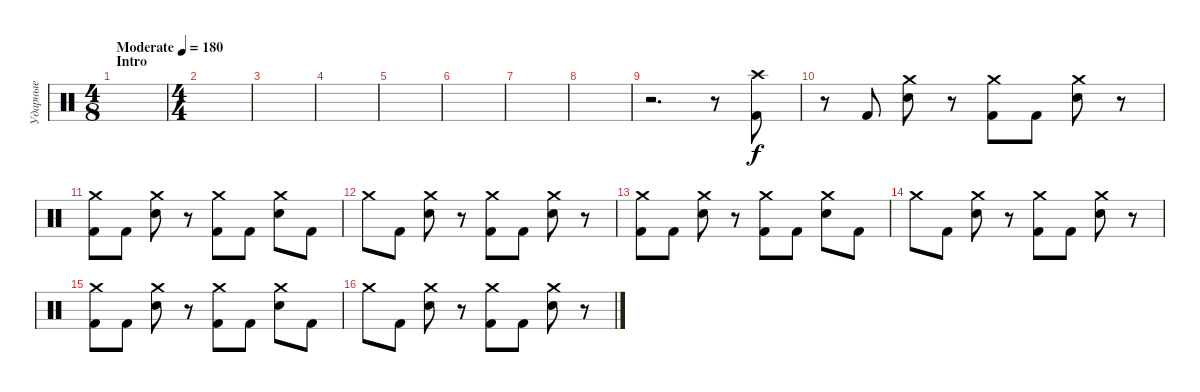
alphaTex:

\track ("Ударные" "Ударные") {instrument percussion}
\staff {score}
\articulation defaults
\ts (4 8)
\section ("" "Intro")
\tempo (180 "Moderate")
\clef neutral
\ks c
|
\ts (4 4)
|
|
|
|
|
|
|
r.2{d} r.8 ("Crash high (hit)" "Kick (hit) 2").8 |
r.8 "Kick (hit) 2".8 ("Crash medium (hit)" "Snare (hit) 2").8 r.8 ("Crash medium (hit)" "Kick (hit) 2").8 "Kick (hit) 2".8 ("Crash medium (hit)" "Snare (hit) 2").8 r.8 |
("Crash medium (hit)" "Kick (hit) 2").8 "Kick (hit) 2".8 ("Crash medium (hit)" "Snare (hit) 2").8 r.8 ("Crash medium (hit)" "Kick (hit) 2").8 "Kick (hit) 2".8 ("Crash medium (hit)" "Snare (hit) 2").8 "Kick (hit) 2".8 |
"Crash medium (hit)".8 "Kick (hit) 2".8 ("Crash medium (hit)" "Snare (hit) 2").8 r.8 ("Crash medium (hit)" "Kick (hit) 2").8 "Kick (hit) 2".8 ("Crash medium (hit)" "Snare (hit) 2").8 r.8 |
("Crash medium (hit)" "Kick (hit) 2").8 "Kick (hit) 2".8 ("Crash medium (hit)" "Snare (hit) 2").8 r.8 ("Crash medium (hit)" "Kick (hit) 2").8 "Kick (hit) 2".8 ("Crash medium (hit)" "Snare (hit) 2").8 "Kick (hit) 2".8 |
"Crash medium (hit)".8 "Kick (hit) 2".8 ("Crash medium (hit)" "Snare (hit) 2").8 r.8 ("Crash medium (hit)" "Kick (hit) 2").8 "Kick (hit) 2".8 ("Crash medium (hit)" "Snare (hit) 2").8 r.8 |
("Crash medium (hit)" "Kick (hit) 2").8 "Kick (hit) 2".8 ("Crash medium (hit)" "Snare (hit) 2").8 r.8 ("Crash medium (hit)" "Kick (hit) 2").8 "Kick (hit) 2".8 ("Crash medium (hit)" "Snare (hit) 2").8 "Kick (hit) 2".8 |
"Crash medium (hit)".8 "Kick (hit) 2".8 ("Crash medium (hit)" "Snare (hit) 2").8 r.8 ("Crash medium (hit)" "Kick (hit) 2").8 "Kick (hit) 2".8 ("Crash medium (hit)" "Snare (hit) 2").8 r.8
